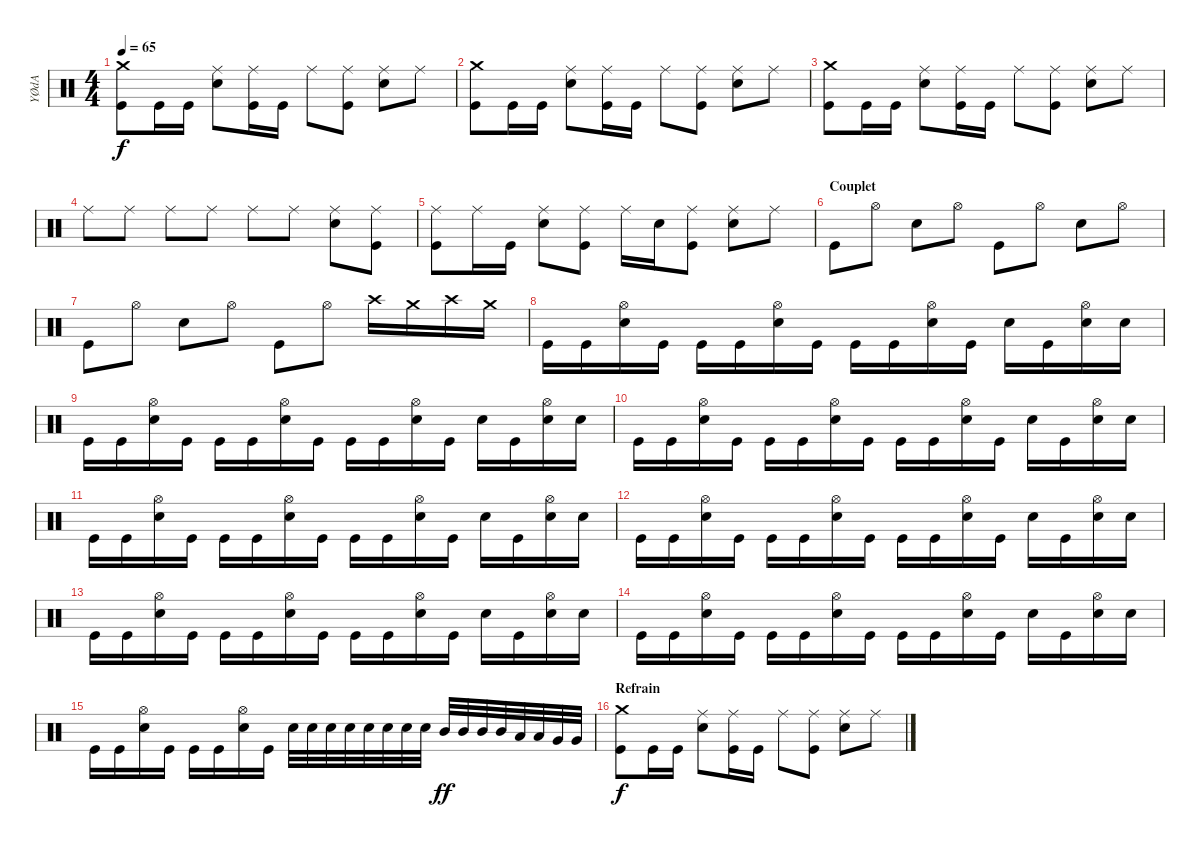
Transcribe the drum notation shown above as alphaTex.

\track ("YØdA" "YØdA") {instrument percussion}
\staff {score}
\articulation defaults
\ts (4 4)
\tempo 65
\clef neutral
\ks c
("Crash medium (hit)" "Kick (hit)").8{dy f} "Kick (hit)".16 "Kick (hit)".16 ("Ride (middle)" "Electric Snare (hit)").8 ("Ride (middle)" "Kick (hit)").16 "Kick (hit)".16 "Ride (middle)".8 ("Ride (middle)" "Kick (hit)").8 ("Ride (middle)" "Electric Snare (hit)").8 "Ride (middle)".8 |
("Crash medium (hit)" "Kick (hit)").8 "Kick (hit)".16 "Kick (hit)".16 ("Ride (middle)" "Electric Snare (hit)").8 ("Ride (middle)" "Kick (hit)").16 "Kick (hit)".16 "Ride (middle)".8 ("Ride (middle)" "Kick (hit)").8 ("Ride (middle)" "Electric Snare (hit)").8 "Ride (middle)".8 |
("Crash medium (hit)" "Kick (hit)").8 "Kick (hit)".16 "Kick (hit)".16 ("Ride (middle)" "Electric Snare (hit)").8 ("Ride (middle)" "Kick (hit)").16 "Kick (hit)".16 "Ride (middle)".8 ("Ride (middle)" "Kick (hit)").8 ("Ride (middle)" "Electric Snare (hit)").8 "Ride (middle)".8 |
"Ride (middle)".8 "Ride (middle)".8 "Ride (middle)".8 "Ride (middle)".8 "Ride (middle)".8 "Ride (middle)".8 ("Ride (middle)" "Electric Snare (hit)").8 ("Ride (middle)" "Kick (hit)").8 |
("Ride (middle)" "Kick (hit)").8 "Ride (middle)".16 "Kick (hit)".16 ("Ride (middle)" "Electric Snare (hit)").8 ("Ride (middle)" "Kick (hit)").8 "Ride (middle)".16 "Electric Snare (hit)".16 ("Ride (middle)" "Kick (hit)").8 ("Ride (middle)" "Electric Snare (hit)").8 "Ride (middle)".8 |
\section ("" "Couplet")
"Kick (hit)".8 "Hi-Hat (open)".8 "Electric Snare (hit)".8 "Hi-Hat (open)".8 "Kick (hit)".8 "Hi-Hat (open)".8 "Electric Snare (hit)".8 "Hi-Hat (open)".8 |
"Kick (hit)".8 "Hi-Hat (open)".8 "Electric Snare (hit)".8 "Hi-Hat (open)".8 "Kick (hit)".8 "Hi-Hat (open)".8 "Crash high (hit)".16 "Crash medium (hit)".16 "Crash high (hit)".16 "Crash medium (hit)".16 |
"Kick (hit)".16 "Kick (hit)".16 ("Hi-Hat (open)" "Electric Snare (hit)").16 "Kick (hit)".16 "Kick (hit)".16 "Kick (hit)".16 ("Hi-Hat (open)" "Electric Snare (hit)").16 "Kick (hit)".16 "Kick (hit)".16 "Kick (hit)".16 ("Hi-Hat (open)" "Electric Snare (hit)").16 "Kick (hit)".16 "Electric Snare (hit)".16 "Kick (hit)".16 ("Hi-Hat (open)" "Electric Snare (hit)").16 "Electric Snare (hit)".16 |
"Kick (hit)".16 "Kick (hit)".16 ("Hi-Hat (open)" "Electric Snare (hit)").16 "Kick (hit)".16 "Kick (hit)".16 "Kick (hit)".16 ("Hi-Hat (open)" "Electric Snare (hit)").16 "Kick (hit)".16 "Kick (hit)".16 "Kick (hit)".16 ("Hi-Hat (open)" "Electric Snare (hit)").16 "Kick (hit)".16 "Electric Snare (hit)".16 "Kick (hit)".16 ("Hi-Hat (open)" "Electric Snare (hit)").16 "Electric Snare (hit)".16 |
"Kick (hit)".16 "Kick (hit)".16 ("Hi-Hat (open)" "Electric Snare (hit)").16 "Kick (hit)".16 "Kick (hit)".16 "Kick (hit)".16 ("Hi-Hat (open)" "Electric Snare (hit)").16 "Kick (hit)".16 "Kick (hit)".16 "Kick (hit)".16 ("Hi-Hat (open)" "Electric Snare (hit)").16 "Kick (hit)".16 "Electric Snare (hit)".16 "Kick (hit)".16 ("Hi-Hat (open)" "Electric Snare (hit)").16 "Electric Snare (hit)".16 |
"Kick (hit)".16 "Kick (hit)".16 ("Hi-Hat (open)" "Electric Snare (hit)").16 "Kick (hit)".16 "Kick (hit)".16 "Kick (hit)".16 ("Hi-Hat (open)" "Electric Snare (hit)").16 "Kick (hit)".16 "Kick (hit)".16 "Kick (hit)".16 ("Hi-Hat (open)" "Electric Snare (hit)").16 "Kick (hit)".16 "Electric Snare (hit)".16 "Kick (hit)".16 ("Hi-Hat (open)" "Electric Snare (hit)").16 "Electric Snare (hit)".16 |
"Kick (hit)".16 "Kick (hit)".16 ("Hi-Hat (open)" "Electric Snare (hit)").16 "Kick (hit)".16 "Kick (hit)".16 "Kick (hit)".16 ("Hi-Hat (open)" "Electric Snare (hit)").16 "Kick (hit)".16 "Kick (hit)".16 "Kick (hit)".16 ("Hi-Hat (open)" "Electric Snare (hit)").16 "Kick (hit)".16 "Electric Snare (hit)".16 "Kick (hit)".16 ("Hi-Hat (open)" "Electric Snare (hit)").16 "Electric Snare (hit)".16 |
"Kick (hit)".16 "Kick (hit)".16 ("Hi-Hat (open)" "Electric Snare (hit)").16 "Kick (hit)".16 "Kick (hit)".16 "Kick (hit)".16 ("Hi-Hat (open)" "Electric Snare (hit)").16 "Kick (hit)".16 "Kick (hit)".16 "Kick (hit)".16 ("Hi-Hat (open)" "Electric Snare (hit)").16 "Kick (hit)".16 "Electric Snare (hit)".16 "Kick (hit)".16 ("Hi-Hat (open)" "Electric Snare (hit)").16 "Electric Snare (hit)".16 |
"Kick (hit)".16 "Kick (hit)".16 ("Hi-Hat (open)" "Electric Snare (hit)").16 "Kick (hit)".16 "Kick (hit)".16 "Kick (hit)".16 ("Hi-Hat (open)" "Electric Snare (hit)").16 "Kick (hit)".16 "Kick (hit)".16 "Kick (hit)".16 ("Hi-Hat (open)" "Electric Snare (hit)").16 "Kick (hit)".16 "Electric Snare (hit)".16 "Kick (hit)".16 ("Hi-Hat (open)" "Electric Snare (hit)").16 "Electric Snare (hit)".16 |
"Kick (hit)".16 "Kick (hit)".16 ("Hi-Hat (open)" "Electric Snare (hit)").16 "Kick (hit)".16 "Kick (hit)".16 "Kick (hit)".16 ("Hi-Hat (open)" "Electric Snare (hit)").16 "Kick (hit)".16 "Electric Snare (hit)".32 "Electric Snare (hit)".32 "Electric Snare (hit)".32 "Electric Snare (hit)".32 "Electric Snare (hit)".32 "Electric Snare (hit)".32 "Electric Snare (hit)".32 "Electric Snare (hit)".32 "Mid Tom (hit)".32{dy ff} "Mid Tom (hit)".32 "Mid Tom (hit)".32 "Mid Tom (hit)".32 "Low Tom (hit)".32 "Low Tom (hit)".32 "Very Low Tom (hit)".32 "Very Low Tom (hit)".32 |
\section ("" "Refrain")
("Crash medium (hit)" "Kick (hit)").8{dy f} "Kick (hit)".16 "Kick (hit)".16 ("Ride (middle)" "Electric Snare (hit)").8 ("Ride (middle)" "Kick (hit)").16 "Kick (hit)".16 "Ride (middle)".8 ("Ride (middle)" "Kick (hit)").8 ("Ride (middle)" "Electric Snare (hit)").8 "Ride (middle)".8
